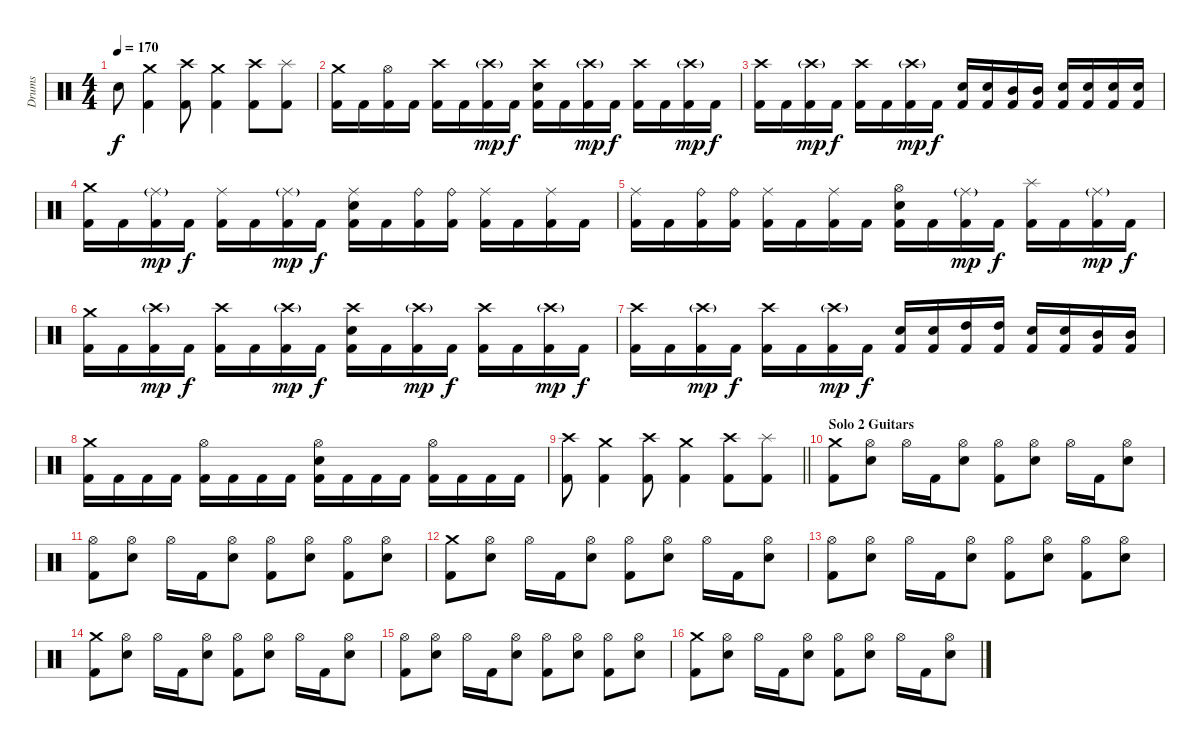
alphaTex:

\track ("Drums" "Drums") {instrument percussion}
\staff {score}
\articulation defaults
\ts (4 4)
\tempo 170
\clef neutral
\ks c "Snare (hit) 2".8{dy f}
("Crash medium (hit)" "Kick (hit) 2").4 ("Crash high (hit)" "Kick (hit) 2").8 ("Crash medium (hit)" "Kick (hit) 2").4 ("Crash high (hit)" "Kick (hit) 2").8 ("Splash (hit)" "Kick (hit) 2").8 |
("Crash medium (hit)" "Kick (hit) 2").16 "Kick (hit) 2".16 ("Hi-Hat (open)" "Kick (hit) 2").16 "Kick (hit) 2".16 ("Crash high (hit)" "Kick (hit) 2").16 "Kick (hit) 2".16 ("Crash high (hit)"{g} "Kick (hit) 2").16{dy mp} "Kick (hit) 2".16{dy f} ("Crash high (hit)" "Snare (hit) 2" "Kick (hit) 2").16 "Kick (hit) 2".16 ("Crash high (hit)"{g} "Kick (hit) 2").16{dy mp} "Kick (hit) 2".16{dy f} ("Crash high (hit)" "Kick (hit) 2").16 "Kick (hit) 2".16 ("Crash high (hit)"{g} "Kick (hit) 2").16{dy mp} "Kick (hit) 2".16{dy f} |
("Crash high (hit)" "Kick (hit) 2").16 "Kick (hit) 2".16 ("Crash high (hit)"{g} "Kick (hit) 2").16{dy mp} "Kick (hit) 2".16{dy f} ("Crash high (hit)" "Kick (hit) 2").16 "Kick (hit) 2".16 ("Crash high (hit)"{g} "Kick (hit) 2").16{dy mp} "Kick (hit) 2".16{dy f} ("Snare (hit) 2" "Kick (hit) 2").16 ("Snare (hit) 2" "Kick (hit) 2").16 ("Mid Tom (hit)" "Kick (hit) 2").16 ("Mid Tom (hit)" "Kick (hit) 2").16 ("Snare (hit) 2" "Kick (hit) 2").16 ("Snare (hit) 2" "Kick (hit) 2").16 ("Snare (hit) 2" "Kick (hit) 2").16 ("Snare (hit) 2" "Kick (hit) 2").16 |
("Crash medium (hit)" "Kick (hit) 2").16 "Kick (hit) 2".16 ("Ride (middle)"{g} "Kick (hit) 2").16{dy mp} "Kick (hit) 2".16{dy f} ("Ride (middle)" "Kick (hit) 2").16 "Kick (hit) 2".16 ("Ride (middle)"{g} "Kick (hit) 2").16{dy mp} "Kick (hit) 2".16{dy f} ("Ride (middle)" "Snare (hit) 2" "Kick (hit) 2").16 "Kick (hit) 2".16 ("Ride (bell)" "Kick (hit) 2").16 ("Ride (bell)" "Kick (hit) 2").16 ("Ride (middle)" "Kick (hit) 2").16 "Kick (hit) 2".16 ("Ride (middle)" "Kick (hit) 2").16 "Kick (hit) 2".16 |
("Ride (middle)" "Kick (hit) 2").16 "Kick (hit) 2".16 ("Ride (bell)" "Kick (hit) 2").16 ("Ride (bell)" "Kick (hit) 2").16 ("Ride (middle)" "Kick (hit) 2").16 "Kick (hit) 2".16 ("Ride (middle)" "Kick (hit) 2").16 "Kick (hit) 2".16 ("Hi-Hat (open)" "Snare (hit) 2" "Kick (hit) 2").16 "Kick (hit) 2".16 ("Ride (middle)"{g} "Kick (hit) 2").16{dy mp} "Kick (hit) 2".16{dy f} ("Splash (hit)" "Kick (hit) 2").16 "Kick (hit) 2".16 ("Ride (middle)"{g} "Kick (hit) 2").16{dy mp} "Kick (hit) 2".16{dy f} |
("Crash medium (hit)" "Kick (hit) 2").16 "Kick (hit) 2".16 ("Crash high (hit)"{g} "Kick (hit) 2").16{dy mp} "Kick (hit) 2".16{dy f} ("Crash high (hit)" "Kick (hit) 2").16 "Kick (hit) 2".16 ("Crash high (hit)"{g} "Kick (hit) 2").16{dy mp} "Kick (hit) 2".16{dy f} ("Crash high (hit)" "Snare (hit) 2" "Kick (hit) 2").16 "Kick (hit) 2".16 ("Crash high (hit)"{g} "Kick (hit) 2").16{dy mp} "Kick (hit) 2".16{dy f} ("Crash high (hit)" "Kick (hit) 2").16 "Kick (hit) 2".16 ("Crash high (hit)"{g} "Kick (hit) 2").16{dy mp} "Kick (hit) 2".16{dy f} |
("Crash high (hit)" "Kick (hit) 2").16 "Kick (hit) 2".16 ("Crash high (hit)"{g} "Kick (hit) 2").16{dy mp} "Kick (hit) 2".16{dy f} ("Crash high (hit)" "Kick (hit) 2").16 "Kick (hit) 2".16 ("Crash high (hit)"{g} "Kick (hit) 2").16{dy mp} "Kick (hit) 2".16{dy f} ("Snare (hit) 2" "Kick (hit) 2").16 ("Snare (hit) 2" "Kick (hit) 2").16 ("High Tom (hit)" "Kick (hit) 2").16 ("High Tom (hit)" "Kick (hit) 2").16 ("Snare (hit) 2" "Kick (hit) 2").16 ("Snare (hit) 2" "Kick (hit) 2").16 ("Mid Tom (hit)" "Kick (hit) 2").16 ("Mid Tom (hit)" "Kick (hit) 2").16 |
("Crash medium (hit)" "Kick (hit) 2").16 "Kick (hit) 2".16 "Kick (hit) 2".16 "Kick (hit) 2".16 ("Hi-Hat (open)" "Kick (hit) 2").16 "Kick (hit) 2".16 "Kick (hit) 2".16 "Kick (hit) 2".16 ("Hi-Hat (open)" "Snare (hit) 2" "Kick (hit) 2").16 "Kick (hit) 2".16 "Kick (hit) 2".16 "Kick (hit) 2".16 ("Hi-Hat (open)" "Kick (hit) 2").16 "Kick (hit) 2".16 "Kick (hit) 2".16 "Kick (hit) 2".16 |
\barLineRight lightlight
("Crash high (hit)" "Kick (hit) 2").8 ("Crash medium (hit)" "Kick (hit) 2").4 ("Crash high (hit)" "Kick (hit) 2").8 ("Crash medium (hit)" "Kick (hit) 2").4 ("Crash high (hit)" "Kick (hit) 2").8 ("Splash (hit)" "Kick (hit) 2").8 |
\section ("" "Solo 2 Guitars")
("Crash medium (hit)" "Kick (hit) 2").8 ("Hi-Hat (open)" "Snare (hit) 2").8 "Hi-Hat (open)".16 "Kick (hit) 2".16 ("Hi-Hat (open)" "Snare (hit) 2").8 ("Hi-Hat (open)" "Kick (hit) 2").8 ("Hi-Hat (open)" "Snare (hit) 2").8 "Hi-Hat (open)".16 "Kick (hit) 2".16 ("Hi-Hat (open)" "Snare (hit) 2").8 |
("Hi-Hat (open)" "Kick (hit) 2").8 ("Hi-Hat (open)" "Snare (hit) 2").8 "Hi-Hat (open)".16 "Kick (hit) 2".16 ("Hi-Hat (open)" "Snare (hit) 2").8 ("Hi-Hat (open)" "Kick (hit) 2").8 ("Hi-Hat (open)" "Snare (hit) 2").8 ("Hi-Hat (open)" "Kick (hit) 2").8 ("Hi-Hat (open)" "Snare (hit) 2").8 |
("Crash medium (hit)" "Kick (hit) 2").8 ("Hi-Hat (open)" "Snare (hit) 2").8 "Hi-Hat (open)".16 "Kick (hit) 2".16 ("Hi-Hat (open)" "Snare (hit) 2").8 ("Hi-Hat (open)" "Kick (hit) 2").8 ("Hi-Hat (open)" "Snare (hit) 2").8 "Hi-Hat (open)".16 "Kick (hit) 2".16 ("Hi-Hat (open)" "Snare (hit) 2").8 |
("Hi-Hat (open)" "Kick (hit) 2").8 ("Hi-Hat (open)" "Snare (hit) 2").8 "Hi-Hat (open)".16 "Kick (hit) 2".16 ("Hi-Hat (open)" "Snare (hit) 2").8 ("Hi-Hat (open)" "Kick (hit) 2").8 ("Hi-Hat (open)" "Snare (hit) 2").8 ("Hi-Hat (open)" "Kick (hit) 2").8 ("Hi-Hat (open)" "Snare (hit) 2").8 |
("Crash medium (hit)" "Kick (hit) 2").8 ("Hi-Hat (open)" "Snare (hit) 2").8 "Hi-Hat (open)".16 "Kick (hit) 2".16 ("Hi-Hat (open)" "Snare (hit) 2").8 ("Hi-Hat (open)" "Kick (hit) 2").8 ("Hi-Hat (open)" "Snare (hit) 2").8 "Hi-Hat (open)".16 "Kick (hit) 2".16 ("Hi-Hat (open)" "Snare (hit) 2").8 |
("Hi-Hat (open)" "Kick (hit) 2").8 ("Hi-Hat (open)" "Snare (hit) 2").8 "Hi-Hat (open)".16 "Kick (hit) 2".16 ("Hi-Hat (open)" "Snare (hit) 2").8 ("Hi-Hat (open)" "Kick (hit) 2").8 ("Hi-Hat (open)" "Snare (hit) 2").8 ("Hi-Hat (open)" "Kick (hit) 2").8 ("Hi-Hat (open)" "Snare (hit) 2").8 |
("Crash medium (hit)" "Kick (hit) 2").8 ("Hi-Hat (open)" "Snare (hit) 2").8 "Hi-Hat (open)".16 "Kick (hit) 2".16 ("Hi-Hat (open)" "Snare (hit) 2").8 ("Hi-Hat (open)" "Kick (hit) 2").8 ("Hi-Hat (open)" "Snare (hit) 2").8 "Hi-Hat (open)".16 "Kick (hit) 2".16 ("Hi-Hat (open)" "Snare (hit) 2").8
